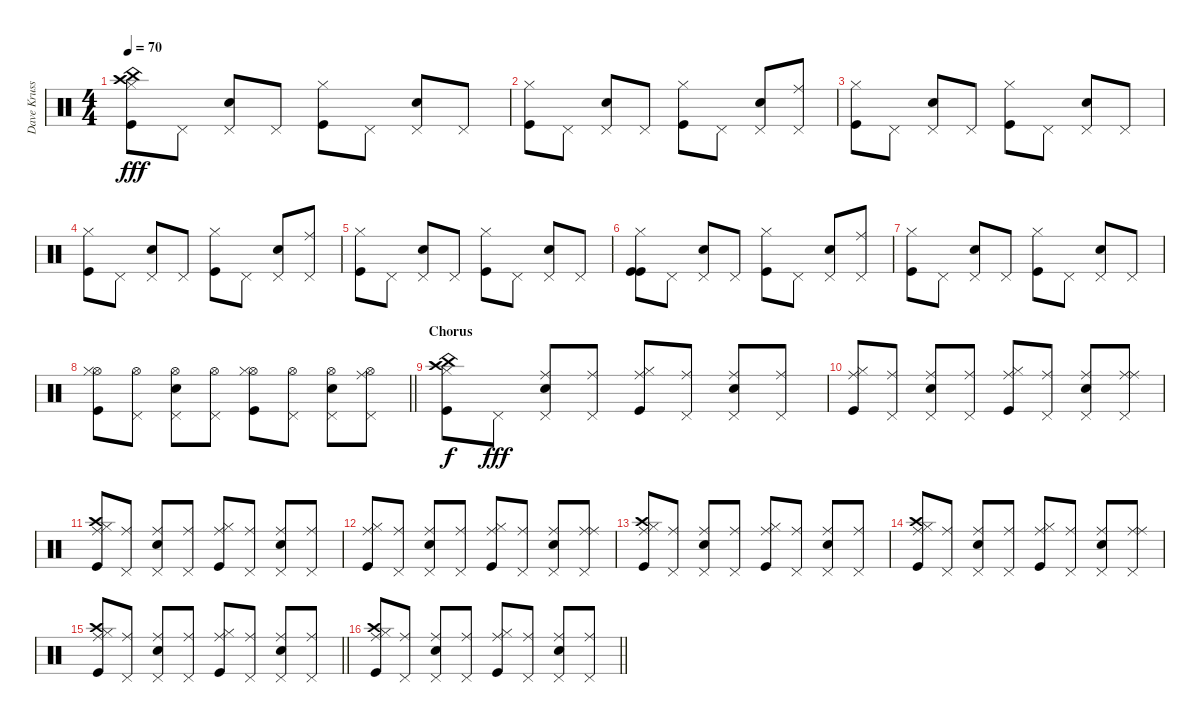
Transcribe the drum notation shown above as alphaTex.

\track ("Dave Krussen" "Dave Kruss") {instrument percussion}
\staff {score}
\articulation defaults
\ts (4 4)
\tempo 70
\clef neutral
\ks c
("Kick (hit)" "Hi-Hat (closed)" "China (hit)" "Crash high (hit)").8{dy fff} "Pedal Hi-Hat (hit)".8 ("Electric Snare (hit)" "Pedal Hi-Hat (hit)").8 "Pedal Hi-Hat (hit)".8 ("Kick (hit)" "Hi-Hat (closed)").8 "Pedal Hi-Hat (hit)".8 ("Electric Snare (hit)" "Pedal Hi-Hat (hit)").8 "Pedal Hi-Hat (hit)".8 |
("Kick (hit)" "Hi-Hat (closed)").8 "Pedal Hi-Hat (hit)".8 ("Electric Snare (hit)" "Pedal Hi-Hat (hit)").8 "Pedal Hi-Hat (hit)".8 ("Kick (hit)" "Hi-Hat (closed)").8 "Pedal Hi-Hat (hit)".8 ("Electric Snare (hit)" "Pedal Hi-Hat (hit)").8 ("Ride (middle)" "Pedal Hi-Hat (hit)").8 |
("Kick (hit)" "Hi-Hat (closed)").8 "Pedal Hi-Hat (hit)".8 ("Electric Snare (hit)" "Pedal Hi-Hat (hit)").8 "Pedal Hi-Hat (hit)".8 ("Kick (hit)" "Hi-Hat (closed)").8 "Pedal Hi-Hat (hit)".8 ("Electric Snare (hit)" "Pedal Hi-Hat (hit)").8 "Pedal Hi-Hat (hit)".8 |
("Kick (hit)" "Hi-Hat (closed)").8 "Pedal Hi-Hat (hit)".8 ("Electric Snare (hit)" "Pedal Hi-Hat (hit)").8 "Pedal Hi-Hat (hit)".8 ("Kick (hit)" "Hi-Hat (closed)").8 "Pedal Hi-Hat (hit)".8 ("Electric Snare (hit)" "Pedal Hi-Hat (hit)").8 ("Ride (middle)" "Pedal Hi-Hat (hit)").8 |
("Kick (hit)" "Hi-Hat (closed)").8 "Pedal Hi-Hat (hit)".8 ("Electric Snare (hit)" "Pedal Hi-Hat (hit)").8 "Pedal Hi-Hat (hit)".8 ("Kick (hit)" "Hi-Hat (closed)").8 "Pedal Hi-Hat (hit)".8 ("Electric Snare (hit)" "Pedal Hi-Hat (hit)").8 "Pedal Hi-Hat (hit)".8 |
("Kick (hit)" "Kick (hit)" "Hi-Hat (closed)").8 "Pedal Hi-Hat (hit)".8 ("Electric Snare (hit)" "Pedal Hi-Hat (hit)").8 "Pedal Hi-Hat (hit)".8 ("Kick (hit)" "Hi-Hat (closed)").8 "Pedal Hi-Hat (hit)".8 ("Electric Snare (hit)" "Pedal Hi-Hat (hit)").8 ("Ride (middle)" "Pedal Hi-Hat (hit)").8 |
("Kick (hit)" "Hi-Hat (closed)").8 "Pedal Hi-Hat (hit)".8 ("Electric Snare (hit)" "Pedal Hi-Hat (hit)").8 "Pedal Hi-Hat (hit)".8 ("Kick (hit)" "Hi-Hat (closed)").8 "Pedal Hi-Hat (hit)".8 ("Electric Snare (hit)" "Pedal Hi-Hat (hit)").8 "Pedal Hi-Hat (hit)".8 |
\barLineRight lightlight
("Hi-Hat (open)" "Kick (hit)" "Hi-Hat (closed)").8 ("Hi-Hat (open)" "Pedal Hi-Hat (hit)").8 ("Hi-Hat (open)" "Electric Snare (hit)" "Pedal Hi-Hat (hit)").8 ("Hi-Hat (open)" "Pedal Hi-Hat (hit)").8 ("Hi-Hat (open)" "Kick (hit)" "Hi-Hat (closed)").8 ("Hi-Hat (open)" "Pedal Hi-Hat (hit)").8 ("Hi-Hat (open)" "Electric Snare (hit)" "Pedal Hi-Hat (hit)").8 ("Hi-Hat (open)" "Ride (middle)" "Pedal Hi-Hat (hit)").8 |
\section ("" "Chorus")
("Crash high (hit)" "Kick (hit)" "Hi-Hat (closed)" "China (hit)").8{dy f} "Pedal Hi-Hat (hit)".8{dy fff} ("Electric Snare (hit)" "Pedal Hi-Hat (hit)" "Ride (middle)").8 ("Pedal Hi-Hat (hit)" "Ride (middle)").8 ("Kick (hit)" "Hi-Hat (closed)" "Ride (middle)").8 ("Pedal Hi-Hat (hit)" "Ride (middle)").8 ("Electric Snare (hit)" "Pedal Hi-Hat (hit)" "Ride (middle)").8 ("Pedal Hi-Hat (hit)" "Ride (middle)").8 |
("Kick (hit)" "Hi-Hat (closed)" "Ride (middle)").8 ("Pedal Hi-Hat (hit)" "Ride (middle)").8 ("Electric Snare (hit)" "Pedal Hi-Hat (hit)" "Ride (middle)").8 ("Pedal Hi-Hat (hit)" "Ride (middle)").8 ("Kick (hit)" "Hi-Hat (closed)" "Ride (middle)").8 ("Pedal Hi-Hat (hit)" "Ride (middle)").8 ("Electric Snare (hit)" "Pedal Hi-Hat (hit)" "Ride (middle)").8 ("Ride (middle)" "Pedal Hi-Hat (hit)" "Ride (middle)").8 |
("Crash high (hit)" "Kick (hit)" "Hi-Hat (closed)" "Ride (middle)").8 ("Pedal Hi-Hat (hit)" "Ride (middle)").8 ("Electric Snare (hit)" "Pedal Hi-Hat (hit)" "Ride (middle)").8 ("Pedal Hi-Hat (hit)" "Ride (middle)").8 ("Kick (hit)" "Hi-Hat (closed)" "Ride (middle)").8 ("Pedal Hi-Hat (hit)" "Ride (middle)").8 ("Electric Snare (hit)" "Pedal Hi-Hat (hit)" "Ride (middle)").8 ("Pedal Hi-Hat (hit)" "Ride (middle)").8 |
("Kick (hit)" "Hi-Hat (closed)" "Ride (middle)").8 ("Pedal Hi-Hat (hit)" "Ride (middle)").8 ("Electric Snare (hit)" "Pedal Hi-Hat (hit)" "Ride (middle)").8 ("Pedal Hi-Hat (hit)" "Ride (middle)").8 ("Kick (hit)" "Hi-Hat (closed)" "Ride (middle)").8 ("Pedal Hi-Hat (hit)" "Ride (middle)").8 ("Electric Snare (hit)" "Pedal Hi-Hat (hit)" "Ride (middle)").8 ("Ride (middle)" "Pedal Hi-Hat (hit)" "Ride (middle)").8 |
("Crash high (hit)" "Kick (hit)" "Hi-Hat (closed)" "Ride (middle)").8 ("Pedal Hi-Hat (hit)" "Ride (middle)").8 ("Electric Snare (hit)" "Pedal Hi-Hat (hit)" "Ride (middle)").8 ("Pedal Hi-Hat (hit)" "Ride (middle)").8 ("Kick (hit)" "Hi-Hat (closed)" "Ride (middle)").8 ("Pedal Hi-Hat (hit)" "Ride (middle)").8 ("Electric Snare (hit)" "Pedal Hi-Hat (hit)" "Ride (middle)").8 ("Pedal Hi-Hat (hit)" "Ride (middle)").8 |
("Crash high (hit)" "Kick (hit)" "Hi-Hat (closed)" "Ride (middle)").8 ("Pedal Hi-Hat (hit)" "Ride (middle)").8 ("Electric Snare (hit)" "Pedal Hi-Hat (hit)" "Ride (middle)").8 ("Pedal Hi-Hat (hit)" "Ride (middle)").8 ("Kick (hit)" "Hi-Hat (closed)" "Ride (middle)").8 ("Pedal Hi-Hat (hit)" "Ride (middle)").8 ("Electric Snare (hit)" "Pedal Hi-Hat (hit)" "Ride (middle)").8 ("Ride (middle)" "Pedal Hi-Hat (hit)" "Ride (middle)").8 |
\barLineRight lightlight
("Crash high (hit)" "Kick (hit)" "Hi-Hat (closed)" "Ride (middle)").8 ("Pedal Hi-Hat (hit)" "Ride (middle)").8 ("Electric Snare (hit)" "Pedal Hi-Hat (hit)" "Ride (middle)").8 ("Pedal Hi-Hat (hit)" "Ride (middle)").8 ("Kick (hit)" "Hi-Hat (closed)" "Ride (middle)").8 ("Pedal Hi-Hat (hit)" "Ride (middle)").8 ("Electric Snare (hit)" "Pedal Hi-Hat (hit)" "Ride (middle)").8 ("Pedal Hi-Hat (hit)" "Ride (middle)").8 |
\barLineRight lightlight
("Crash high (hit)" "Kick (hit)" "Hi-Hat (closed)" "Ride (middle)").8 ("Pedal Hi-Hat (hit)" "Ride (middle)").8 ("Electric Snare (hit)" "Pedal Hi-Hat (hit)" "Ride (middle)").8 ("Pedal Hi-Hat (hit)" "Ride (middle)").8 ("Kick (hit)" "Hi-Hat (closed)" "Ride (middle)").8 ("Pedal Hi-Hat (hit)" "Ride (middle)").8 ("Electric Snare (hit)" "Pedal Hi-Hat (hit)" "Ride (middle)").8 ("Ride (middle)" "Pedal Hi-Hat (hit)").8
